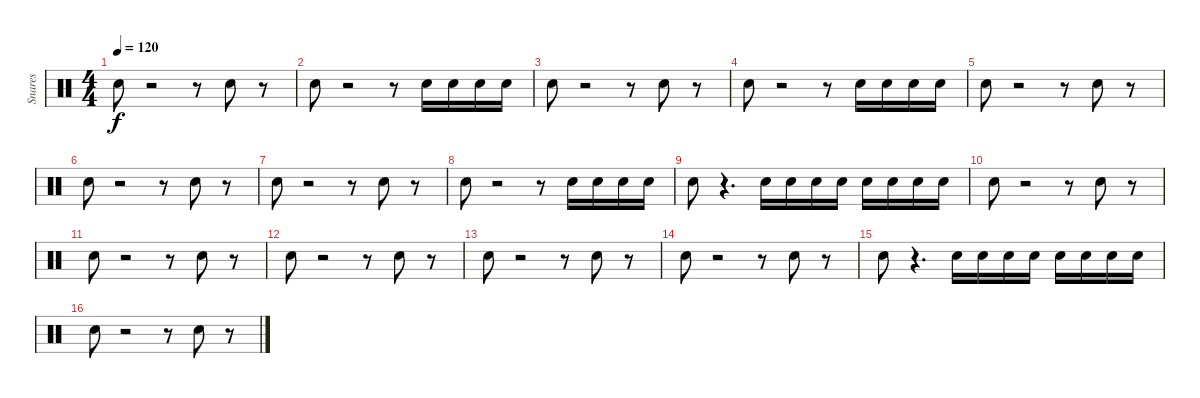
\track ("Snares              " "Snares    ") {instrument percussion}
\staff {score}
\articulation defaults
\ts (4 4)
\tempo 120
\clef neutral
\ks c "Snare (hit) 2".8{dy f}
r.2 r.8 "Snare (hit) 2".8 r.8 |
"Snare (hit) 2".8 r.2 r.8 "Snare (hit) 2".16 "Snare (hit) 2".16 "Snare (hit) 2".16 "Snare (hit) 2".16 |
"Snare (hit) 2".8 r.2 r.8 "Snare (hit) 2".8 r.8 |
"Snare (hit) 2".8 r.2 r.8 "Snare (hit) 2".16 "Snare (hit) 2".16 "Snare (hit) 2".16 "Snare (hit) 2".16 |
"Snare (hit) 2".8 r.2 r.8 "Snare (hit) 2".8 r.8 |
"Snare (hit) 2".8 r.2 r.8 "Snare (hit) 2".8 r.8 |
"Snare (hit) 2".8 r.2 r.8 "Snare (hit) 2".8 r.8 |
"Snare (hit) 2".8 r.2 r.8 "Snare (hit) 2".16 "Snare (hit) 2".16 "Snare (hit) 2".16 "Snare (hit) 2".16 |
"Snare (hit) 2".8 r.4{d} "Snare (hit) 2".16 "Snare (hit) 2".16 "Snare (hit) 2".16 "Snare (hit) 2".16 "Snare (hit) 2".16 "Snare (hit) 2".16 "Snare (hit) 2".16 "Snare (hit) 2".16 |
"Snare (hit) 2".8 r.2 r.8 "Snare (hit) 2".8 r.8 |
"Snare (hit) 2".8 r.2 r.8 "Snare (hit) 2".8 r.8 |
"Snare (hit) 2".8 r.2 r.8 "Snare (hit) 2".8 r.8 |
"Snare (hit) 2".8 r.2 r.8 "Snare (hit) 2".8 r.8 |
"Snare (hit) 2".8 r.2 r.8 "Snare (hit) 2".8 r.8 |
"Snare (hit) 2".8 r.4{d} "Snare (hit) 2".16 "Snare (hit) 2".16 "Snare (hit) 2".16 "Snare (hit) 2".16 "Snare (hit) 2".16 "Snare (hit) 2".16 "Snare (hit) 2".16 "Snare (hit) 2".16 |
"Snare (hit) 2".8 r.2 r.8 "Snare (hit) 2".8 r.8
